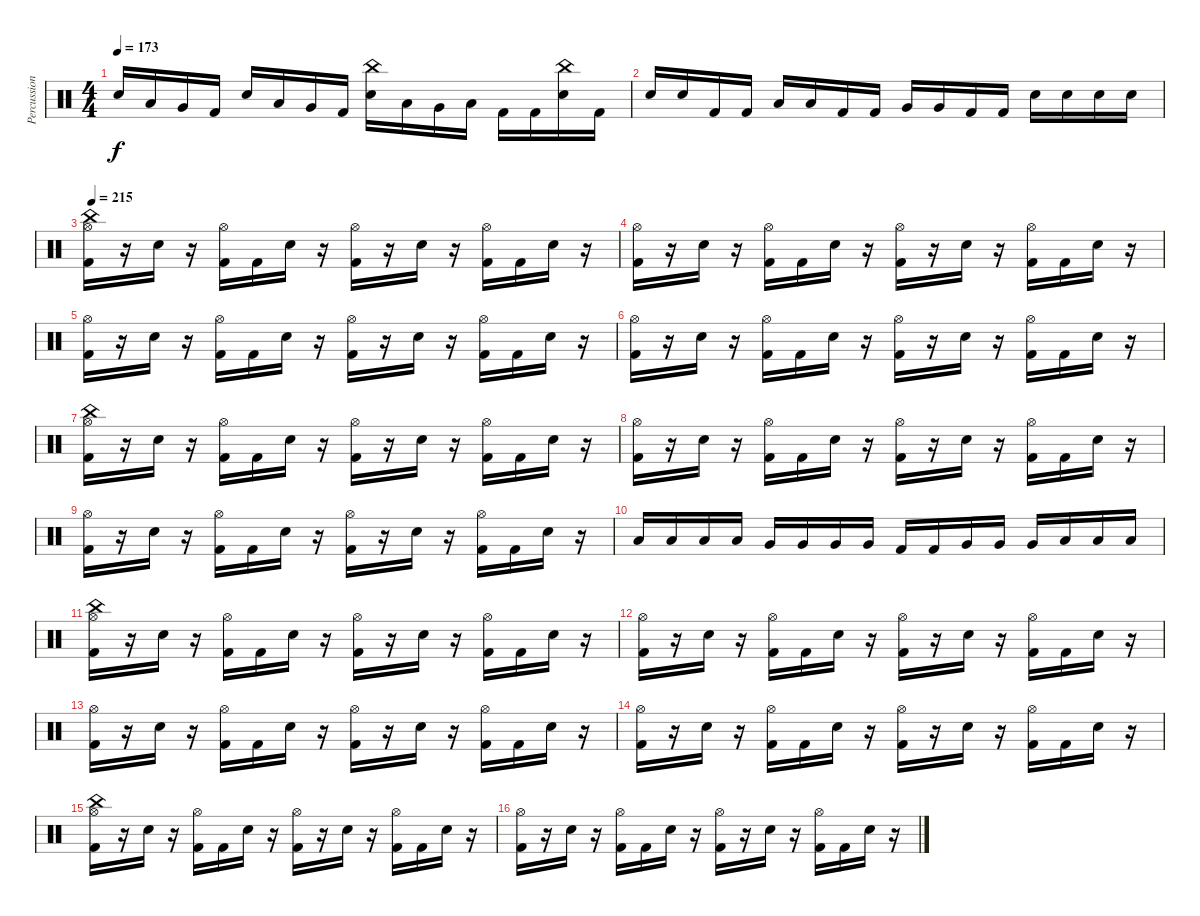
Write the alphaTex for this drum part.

\track ("Percussion" "Percussion") {instrument percussion}
\staff {score}
\articulation defaults
\ts (4 4)
\tempo 173
\clef neutral
\ks c "Electric Snare (hit)".16{dy f} "Low Tom (hit)".16 "Very Low Tom (hit)".16 "Kick (hit) 2".16 "Electric Snare (hit)".16 "Low Tom (hit)".16 "Very Low Tom (hit)".16 "Kick (hit) 2".16
("Electric Snare (hit)" "China (hit)").16 "Low Tom (hit)".16 "Very Low Tom (hit)".16 "Low Floor Tom (hit)".16 "Kick (hit) 2".16 "Kick (hit) 2".16 ("Electric Snare (hit)" "China (hit)").16 "Kick (hit) 2".16 |
"Electric Snare (hit)".16 "Electric Snare (hit)".16 "Kick (hit) 2".16 "Kick (hit) 2".16 "Low Tom (hit)".16 "Low Tom (hit)".16 "Kick (hit) 2".16 "Kick (hit) 2".16 "Very Low Tom (hit)".16 "Very Low Tom (hit)".16 "Kick (hit) 2".16 "Kick (hit) 2".16 "Electric Snare (hit)".16 "Electric Snare (hit)".16 "Electric Snare (hit)".16 "Electric Snare (hit)".16 |
\tempo 215
("Kick (hit) 2" "China (hit)" "Hi-Hat (open)").16 r.16 "Electric Snare (hit)".16 r.16 ("Kick (hit) 2" "Hi-Hat (open)").16 "Kick (hit) 2".16 "Electric Snare (hit)".16 r.16 ("Kick (hit) 2" "Hi-Hat (open)").16 r.16 "Electric Snare (hit)".16 r.16 ("Kick (hit) 2" "Hi-Hat (open)").16 "Kick (hit) 2".16 "Electric Snare (hit)".16 r.16 |
("Kick (hit) 2" "Hi-Hat (open)").16 r.16 "Electric Snare (hit)".16 r.16 ("Kick (hit) 2" "Hi-Hat (open)").16 "Kick (hit) 2".16 "Electric Snare (hit)".16 r.16 ("Kick (hit) 2" "Hi-Hat (open)").16 r.16 "Electric Snare (hit)".16 r.16 ("Kick (hit) 2" "Hi-Hat (open)").16 "Kick (hit) 2".16 "Electric Snare (hit)".16 r.16 |
("Kick (hit) 2" "Hi-Hat (open)").16 r.16 "Electric Snare (hit)".16 r.16 ("Kick (hit) 2" "Hi-Hat (open)").16 "Kick (hit) 2".16 "Electric Snare (hit)".16 r.16 ("Kick (hit) 2" "Hi-Hat (open)").16 r.16 "Electric Snare (hit)".16 r.16 ("Kick (hit) 2" "Hi-Hat (open)").16 "Kick (hit) 2".16 "Electric Snare (hit)".16 r.16 |
("Kick (hit) 2" "Hi-Hat (open)").16 r.16 "Electric Snare (hit)".16 r.16 ("Kick (hit) 2" "Hi-Hat (open)").16 "Kick (hit) 2".16 "Electric Snare (hit)".16 r.16 ("Kick (hit) 2" "Hi-Hat (open)").16 r.16 "Electric Snare (hit)".16 r.16 ("Kick (hit) 2" "Hi-Hat (open)").16 "Kick (hit) 2".16 "Electric Snare (hit)".16 r.16 |
("Kick (hit) 2" "China (hit)" "Hi-Hat (open)").16 r.16 "Electric Snare (hit)".16 r.16 ("Kick (hit) 2" "Hi-Hat (open)").16 "Kick (hit) 2".16 "Electric Snare (hit)".16 r.16 ("Kick (hit) 2" "Hi-Hat (open)").16 r.16 "Electric Snare (hit)".16 r.16 ("Kick (hit) 2" "Hi-Hat (open)").16 "Kick (hit) 2".16 "Electric Snare (hit)".16 r.16 |
("Kick (hit) 2" "Hi-Hat (open)").16 r.16 "Electric Snare (hit)".16 r.16 ("Kick (hit) 2" "Hi-Hat (open)").16 "Kick (hit) 2".16 "Electric Snare (hit)".16 r.16 ("Kick (hit) 2" "Hi-Hat (open)").16 r.16 "Electric Snare (hit)".16 r.16 ("Kick (hit) 2" "Hi-Hat (open)").16 "Kick (hit) 2".16 "Electric Snare (hit)".16 r.16 |
("Kick (hit) 2" "Hi-Hat (open)").16 r.16 "Electric Snare (hit)".16 r.16 ("Kick (hit) 2" "Hi-Hat (open)").16 "Kick (hit) 2".16 "Electric Snare (hit)".16 r.16 ("Kick (hit) 2" "Hi-Hat (open)").16 r.16 "Electric Snare (hit)".16 r.16 ("Kick (hit) 2" "Hi-Hat (open)").16 "Kick (hit) 2".16 "Electric Snare (hit)".16 r.16 |
"Low Tom (hit)".16 "Low Tom (hit)".16 "Low Tom (hit)".16 "Low Tom (hit)".16 "Very Low Tom (hit)".16 "Very Low Tom (hit)".16 "Very Low Tom (hit)".16 "Very Low Tom (hit)".16 "Kick (hit) 2".16 "Kick (hit) 2".16 "Very Low Tom (hit)".16 "Very Low Tom (hit)".16 "Very Low Tom (hit)".16 "Low Floor Tom (hit)".16 "Low Floor Tom (hit)".16 "Low Floor Tom (hit)".16 |
("Kick (hit) 2" "China (hit)" "Hi-Hat (open)").16 r.16 "Electric Snare (hit)".16 r.16 ("Kick (hit) 2" "Hi-Hat (open)").16 "Kick (hit) 2".16 "Electric Snare (hit)".16 r.16 ("Kick (hit) 2" "Hi-Hat (open)").16 r.16 "Electric Snare (hit)".16 r.16 ("Kick (hit) 2" "Hi-Hat (open)").16 "Kick (hit) 2".16 "Electric Snare (hit)".16 r.16 |
("Kick (hit) 2" "Hi-Hat (open)").16 r.16 "Electric Snare (hit)".16 r.16 ("Kick (hit) 2" "Hi-Hat (open)").16 "Kick (hit) 2".16 "Electric Snare (hit)".16 r.16 ("Kick (hit) 2" "Hi-Hat (open)").16 r.16 "Electric Snare (hit)".16 r.16 ("Kick (hit) 2" "Hi-Hat (open)").16 "Kick (hit) 2".16 "Electric Snare (hit)".16 r.16 |
("Kick (hit) 2" "Hi-Hat (open)").16 r.16 "Electric Snare (hit)".16 r.16 ("Kick (hit) 2" "Hi-Hat (open)").16 "Kick (hit) 2".16 "Electric Snare (hit)".16 r.16 ("Kick (hit) 2" "Hi-Hat (open)").16 r.16 "Electric Snare (hit)".16 r.16 ("Kick (hit) 2" "Hi-Hat (open)").16 "Kick (hit) 2".16 "Electric Snare (hit)".16 r.16 |
("Kick (hit) 2" "Hi-Hat (open)").16 r.16 "Electric Snare (hit)".16 r.16 ("Kick (hit) 2" "Hi-Hat (open)").16 "Kick (hit) 2".16 "Electric Snare (hit)".16 r.16 ("Kick (hit) 2" "Hi-Hat (open)").16 r.16 "Electric Snare (hit)".16 r.16 ("Kick (hit) 2" "Hi-Hat (open)").16 "Kick (hit) 2".16 "Electric Snare (hit)".16 r.16 |
("Kick (hit) 2" "China (hit)" "Hi-Hat (open)").16 r.16 "Electric Snare (hit)".16 r.16 ("Kick (hit) 2" "Hi-Hat (open)").16 "Kick (hit) 2".16 "Electric Snare (hit)".16 r.16 ("Kick (hit) 2" "Hi-Hat (open)").16 r.16 "Electric Snare (hit)".16 r.16 ("Kick (hit) 2" "Hi-Hat (open)").16 "Kick (hit) 2".16 "Electric Snare (hit)".16 r.16 |
("Kick (hit) 2" "Hi-Hat (open)").16 r.16 "Electric Snare (hit)".16 r.16 ("Kick (hit) 2" "Hi-Hat (open)").16 "Kick (hit) 2".16 "Electric Snare (hit)".16 r.16 ("Kick (hit) 2" "Hi-Hat (open)").16 r.16 "Electric Snare (hit)".16 r.16 ("Kick (hit) 2" "Hi-Hat (open)").16 "Kick (hit) 2".16 "Electric Snare (hit)".16 r.16
